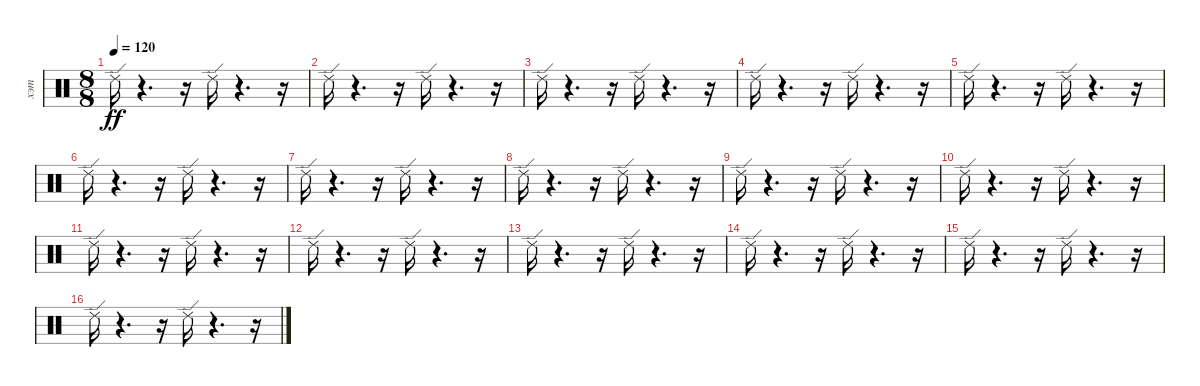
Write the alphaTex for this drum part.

\track ("хэт" "хэт") {instrument percussion}
\staff {score}
\articulation defaults
\ts (8 8)
\tempo 120
\clef neutral
\ks c "Ride (edge) 2".16{dy ff}
r.4{d} r.16 "Ride (edge) 2".16 r.4{d} r.16 |
"Ride (edge) 2".16 r.4{d} r.16 "Ride (edge) 2".16 r.4{d} r.16 |
"Ride (edge) 2".16 r.4{d} r.16 "Ride (edge) 2".16 r.4{d} r.16 |
"Ride (edge) 2".16 r.4{d} r.16 "Ride (edge) 2".16 r.4{d} r.16 |
"Ride (edge) 2".16 r.4{d} r.16 "Ride (edge) 2".16 r.4{d} r.16 |
"Ride (edge) 2".16 r.4{d} r.16 "Ride (edge) 2".16 r.4{d} r.16 |
"Ride (edge) 2".16 r.4{d} r.16 "Ride (edge) 2".16 r.4{d} r.16 |
"Ride (edge) 2".16 r.4{d} r.16 "Ride (edge) 2".16 r.4{d} r.16 |
"Ride (edge) 2".16 r.4{d} r.16 "Ride (edge) 2".16 r.4{d} r.16 |
"Ride (edge) 2".16 r.4{d} r.16 "Ride (edge) 2".16 r.4{d} r.16 |
"Ride (edge) 2".16 r.4{d} r.16 "Ride (edge) 2".16 r.4{d} r.16 |
"Ride (edge) 2".16 r.4{d} r.16 "Ride (edge) 2".16 r.4{d} r.16 |
"Ride (edge) 2".16 r.4{d} r.16 "Ride (edge) 2".16 r.4{d} r.16 |
"Ride (edge) 2".16 r.4{d} r.16 "Ride (edge) 2".16 r.4{d} r.16 |
"Ride (edge) 2".16 r.4{d} r.16 "Ride (edge) 2".16 r.4{d} r.16 |
"Ride (edge) 2".16 r.4{d} r.16 "Ride (edge) 2".16 r.4{d} r.16
